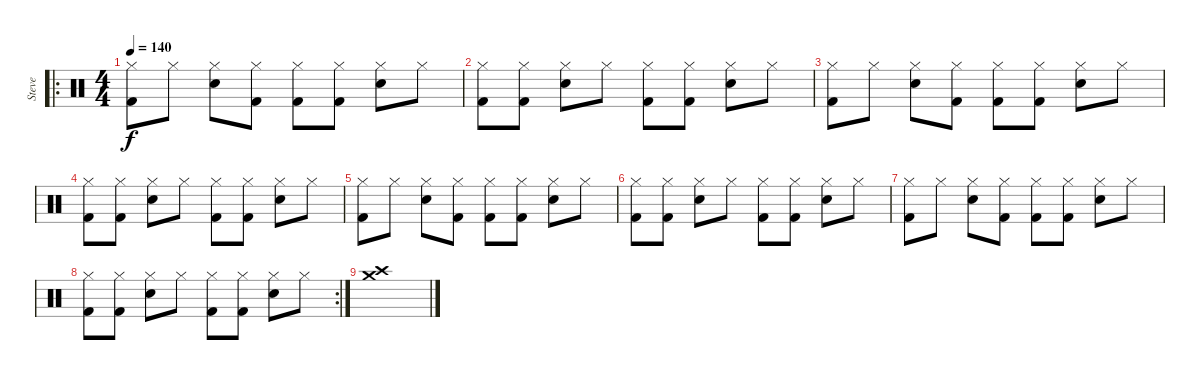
\track ("Steve" "Steve") {instrument percussion}
\staff {score}
\articulation defaults
\ro
\ts (4 4)
\tempo 140
\clef neutral
\ks c
("Hi-Hat (closed)" "Kick (hit) 2").8{dy f} "Hi-Hat (closed)".8 ("Hi-Hat (closed)" "Snare (hit) 2").8 ("Hi-Hat (closed)" "Kick (hit) 2").8 ("Hi-Hat (closed)" "Kick (hit) 2").8 ("Hi-Hat (closed)" "Kick (hit) 2").8 ("Hi-Hat (closed)" "Snare (hit) 2").8 "Hi-Hat (closed)".8 |
("Hi-Hat (closed)" "Kick (hit) 2").8 ("Hi-Hat (closed)" "Kick (hit) 2").8 ("Hi-Hat (closed)" "Snare (hit) 2").8 "Hi-Hat (closed)".8 ("Hi-Hat (closed)" "Kick (hit) 2").8 ("Hi-Hat (closed)" "Kick (hit) 2").8 ("Hi-Hat (closed)" "Snare (hit) 2").8 "Hi-Hat (closed)".8 |
("Hi-Hat (closed)" "Kick (hit) 2").8 "Hi-Hat (closed)".8 ("Hi-Hat (closed)" "Snare (hit) 2").8 ("Hi-Hat (closed)" "Kick (hit) 2").8 ("Hi-Hat (closed)" "Kick (hit) 2").8 ("Hi-Hat (closed)" "Kick (hit) 2").8 ("Hi-Hat (closed)" "Snare (hit) 2").8 "Hi-Hat (closed)".8 |
("Hi-Hat (closed)" "Kick (hit) 2").8 ("Hi-Hat (closed)" "Kick (hit) 2").8 ("Hi-Hat (closed)" "Snare (hit) 2").8 "Hi-Hat (closed)".8 ("Hi-Hat (closed)" "Kick (hit) 2").8 ("Hi-Hat (closed)" "Kick (hit) 2").8 ("Hi-Hat (closed)" "Snare (hit) 2").8 "Hi-Hat (closed)".8 |
("Hi-Hat (closed)" "Kick (hit) 2").8 "Hi-Hat (closed)".8 ("Hi-Hat (closed)" "Snare (hit) 2").8 ("Hi-Hat (closed)" "Kick (hit) 2").8 ("Hi-Hat (closed)" "Kick (hit) 2").8 ("Hi-Hat (closed)" "Kick (hit) 2").8 ("Hi-Hat (closed)" "Snare (hit) 2").8 "Hi-Hat (closed)".8 |
("Hi-Hat (closed)" "Kick (hit) 2").8 ("Hi-Hat (closed)" "Kick (hit) 2").8 ("Hi-Hat (closed)" "Snare (hit) 2").8 "Hi-Hat (closed)".8 ("Hi-Hat (closed)" "Kick (hit) 2").8 ("Hi-Hat (closed)" "Kick (hit) 2").8 ("Hi-Hat (closed)" "Snare (hit) 2").8 "Hi-Hat (closed)".8 |
("Hi-Hat (closed)" "Kick (hit) 2").8 "Hi-Hat (closed)".8 ("Hi-Hat (closed)" "Snare (hit) 2").8 ("Hi-Hat (closed)" "Kick (hit) 2").8 ("Hi-Hat (closed)" "Kick (hit) 2").8 ("Hi-Hat (closed)" "Kick (hit) 2").8 ("Hi-Hat (closed)" "Snare (hit) 2").8 "Hi-Hat (closed)".8 |
\rc 2
("Hi-Hat (closed)" "Kick (hit) 2").8 ("Hi-Hat (closed)" "Kick (hit) 2").8 ("Hi-Hat (closed)" "Snare (hit) 2").8 "Hi-Hat (closed)".8 ("Hi-Hat (closed)" "Kick (hit) 2").8 ("Hi-Hat (closed)" "Kick (hit) 2").8 ("Hi-Hat (closed)" "Snare (hit) 2").8 "Hi-Hat (closed)".8 |
("Crash high (hit)" "Crash medium (hit)").1
